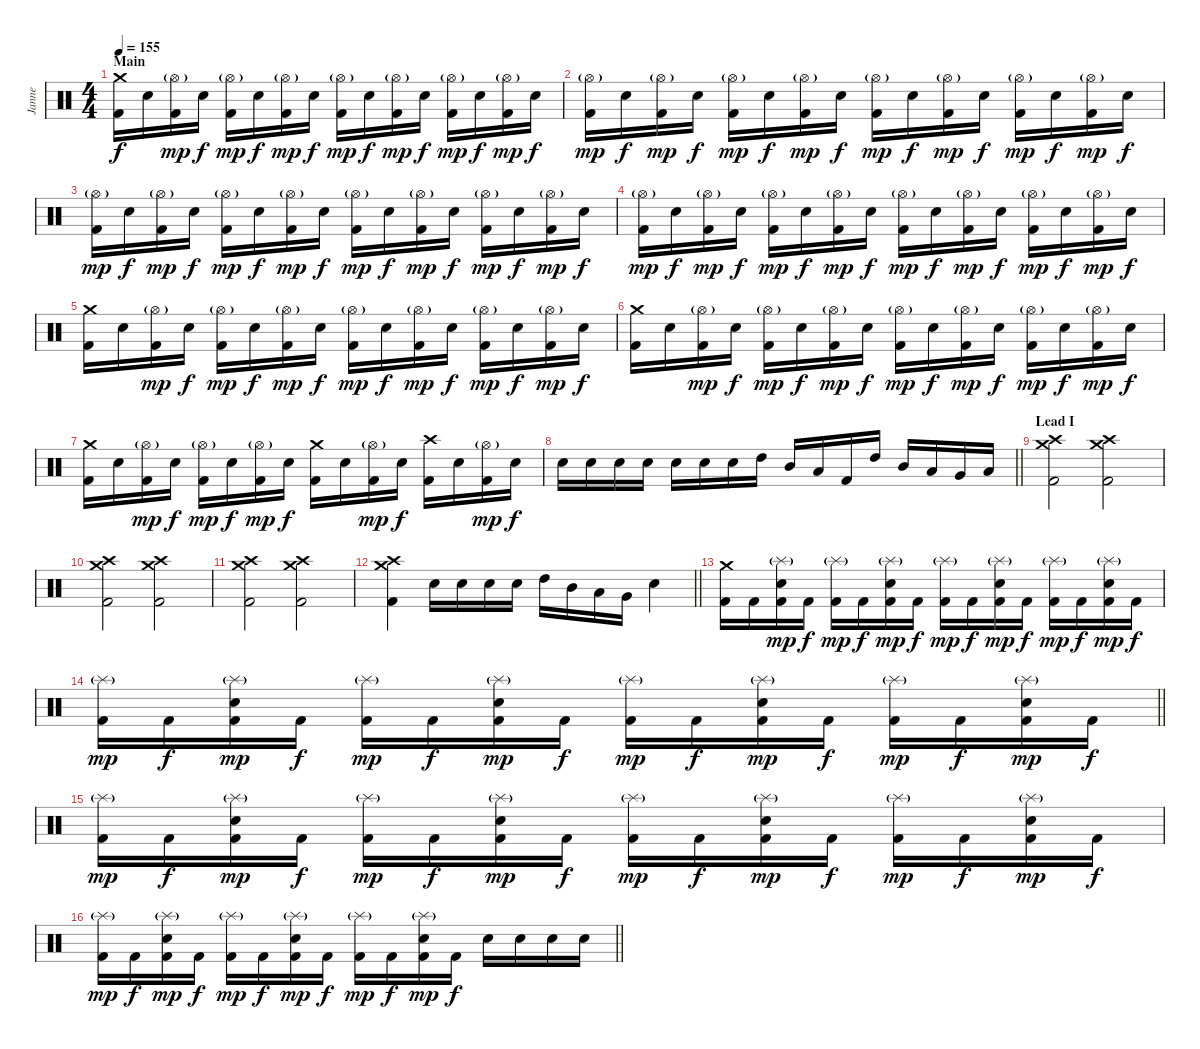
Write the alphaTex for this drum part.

\track ("Janne" "Janne") {instrument percussion}
\staff {score}
\articulation defaults
\ts (4 4)
\section ("" "Main")
\tempo 155
\clef neutral
\ks c
("Kick (hit) 2" "Crash medium (hit)").16{dy f} "Snare (hit) 2".16 ("Kick (hit) 2" "Hi-Hat (open)"{g}).16{dy mp} "Snare (hit) 2".16{dy f} ("Kick (hit) 2" "Hi-Hat (open)"{g}).16{dy mp} "Snare (hit) 2".16{dy f} ("Kick (hit) 2" "Hi-Hat (open)"{g}).16{dy mp} "Snare (hit) 2".16{dy f} ("Kick (hit) 2" "Hi-Hat (open)"{g}).16{dy mp} "Snare (hit) 2".16{dy f} ("Kick (hit) 2" "Hi-Hat (open)"{g}).16{dy mp} "Snare (hit) 2".16{dy f} ("Kick (hit) 2" "Hi-Hat (open)"{g}).16{dy mp} "Snare (hit) 2".16{dy f} ("Kick (hit) 2" "Hi-Hat (open)"{g}).16{dy mp} "Snare (hit) 2".16{dy f} |
("Kick (hit) 2" "Hi-Hat (open)"{g}).16{dy mp} "Snare (hit) 2".16{dy f} ("Kick (hit) 2" "Hi-Hat (open)"{g}).16{dy mp} "Snare (hit) 2".16{dy f} ("Kick (hit) 2" "Hi-Hat (open)"{g}).16{dy mp} "Snare (hit) 2".16{dy f} ("Kick (hit) 2" "Hi-Hat (open)"{g}).16{dy mp} "Snare (hit) 2".16{dy f} ("Kick (hit) 2" "Hi-Hat (open)"{g}).16{dy mp} "Snare (hit) 2".16{dy f} ("Kick (hit) 2" "Hi-Hat (open)"{g}).16{dy mp} "Snare (hit) 2".16{dy f} ("Kick (hit) 2" "Hi-Hat (open)"{g}).16{dy mp} "Snare (hit) 2".16{dy f} ("Kick (hit) 2" "Hi-Hat (open)"{g}).16{dy mp} "Snare (hit) 2".16{dy f} |
("Kick (hit) 2" "Hi-Hat (open)"{g}).16{dy mp} "Snare (hit) 2".16{dy f} ("Kick (hit) 2" "Hi-Hat (open)"{g}).16{dy mp} "Snare (hit) 2".16{dy f} ("Kick (hit) 2" "Hi-Hat (open)"{g}).16{dy mp} "Snare (hit) 2".16{dy f} ("Kick (hit) 2" "Hi-Hat (open)"{g}).16{dy mp} "Snare (hit) 2".16{dy f} ("Kick (hit) 2" "Hi-Hat (open)"{g}).16{dy mp} "Snare (hit) 2".16{dy f} ("Kick (hit) 2" "Hi-Hat (open)"{g}).16{dy mp} "Snare (hit) 2".16{dy f} ("Kick (hit) 2" "Hi-Hat (open)"{g}).16{dy mp} "Snare (hit) 2".16{dy f} ("Kick (hit) 2" "Hi-Hat (open)"{g}).16{dy mp} "Snare (hit) 2".16{dy f} |
("Kick (hit) 2" "Hi-Hat (open)"{g}).16{dy mp} "Snare (hit) 2".16{dy f} ("Kick (hit) 2" "Hi-Hat (open)"{g}).16{dy mp} "Snare (hit) 2".16{dy f} ("Kick (hit) 2" "Hi-Hat (open)"{g}).16{dy mp} "Snare (hit) 2".16{dy f} ("Kick (hit) 2" "Hi-Hat (open)"{g}).16{dy mp} "Snare (hit) 2".16{dy f} ("Kick (hit) 2" "Hi-Hat (open)"{g}).16{dy mp} "Snare (hit) 2".16{dy f} ("Kick (hit) 2" "Hi-Hat (open)"{g}).16{dy mp} "Snare (hit) 2".16{dy f} ("Kick (hit) 2" "Hi-Hat (open)"{g}).16{dy mp} "Snare (hit) 2".16{dy f} ("Kick (hit) 2" "Hi-Hat (open)"{g}).16{dy mp} "Snare (hit) 2".16{dy f} |
("Kick (hit) 2" "Crash medium (hit)").16 "Snare (hit) 2".16 ("Kick (hit) 2" "Hi-Hat (open)"{g}).16{dy mp} "Snare (hit) 2".16{dy f} ("Kick (hit) 2" "Hi-Hat (open)"{g}).16{dy mp} "Snare (hit) 2".16{dy f} ("Kick (hit) 2" "Hi-Hat (open)"{g}).16{dy mp} "Snare (hit) 2".16{dy f} ("Kick (hit) 2" "Hi-Hat (open)"{g}).16{dy mp} "Snare (hit) 2".16{dy f} ("Kick (hit) 2" "Hi-Hat (open)"{g}).16{dy mp} "Snare (hit) 2".16{dy f} ("Kick (hit) 2" "Hi-Hat (open)"{g}).16{dy mp} "Snare (hit) 2".16{dy f} ("Kick (hit) 2" "Hi-Hat (open)"{g}).16{dy mp} "Snare (hit) 2".16{dy f} |
("Kick (hit) 2" "Crash medium (hit)").16 "Snare (hit) 2".16 ("Kick (hit) 2" "Hi-Hat (open)"{g}).16{dy mp} "Snare (hit) 2".16{dy f} ("Kick (hit) 2" "Hi-Hat (open)"{g}).16{dy mp} "Snare (hit) 2".16{dy f} ("Kick (hit) 2" "Hi-Hat (open)"{g}).16{dy mp} "Snare (hit) 2".16{dy f} ("Kick (hit) 2" "Hi-Hat (open)"{g}).16{dy mp} "Snare (hit) 2".16{dy f} ("Kick (hit) 2" "Hi-Hat (open)"{g}).16{dy mp} "Snare (hit) 2".16{dy f} ("Kick (hit) 2" "Hi-Hat (open)"{g}).16{dy mp} "Snare (hit) 2".16{dy f} ("Kick (hit) 2" "Hi-Hat (open)"{g}).16{dy mp} "Snare (hit) 2".16{dy f} |
("Kick (hit) 2" "Crash medium (hit)").16 "Snare (hit) 2".16 ("Kick (hit) 2" "Hi-Hat (open)"{g}).16{dy mp} "Snare (hit) 2".16{dy f} ("Kick (hit) 2" "Hi-Hat (open)"{g}).16{dy mp} "Snare (hit) 2".16{dy f} ("Kick (hit) 2" "Hi-Hat (open)"{g}).16{dy mp} "Snare (hit) 2".16{dy f} ("Kick (hit) 2" "Crash medium (hit)").16 "Snare (hit) 2".16 ("Kick (hit) 2" "Hi-Hat (open)"{g}).16{dy mp} "Snare (hit) 2".16{dy f} ("Kick (hit) 2" "Crash high (hit)").16 "Snare (hit) 2".16 ("Kick (hit) 2" "Hi-Hat (open)"{g}).16{dy mp} "Snare (hit) 2".16{dy f} |
\barLineRight lightlight "Snare (hit) 2".16 "Snare (hit) 2".16 "Snare (hit) 2".16 "Snare (hit) 2".16 "Snare (hit) 2".16 "Snare (hit) 2".16 "Snare (hit) 2".16 "High Tom (hit)".16 "Mid Tom (hit)".16 "Low Tom (hit)".16 "Kick (hit) 2".16 "High Tom (hit)".16 "Mid Tom (hit)".16 "Low Tom (hit)".16 "Very Low Tom (hit)".16 "Low Floor Tom (hit)".16
|
\section ("" "Lead I")
("Kick (hit) 2" "Crash medium (hit)" "Crash high (hit)").2 ("Kick (hit) 2" "Crash high (hit)" "Crash medium (hit)").2 |
("Kick (hit) 2" "Crash medium (hit)" "Crash high (hit)").2 ("Kick (hit) 2" "Crash high (hit)" "Crash medium (hit)").2 |
("Kick (hit) 2" "Crash medium (hit)" "Crash high (hit)").2 ("Kick (hit) 2" "Crash high (hit)" "Crash medium (hit)").2 |
\barLineRight lightlight
("Kick (hit) 2" "Crash medium (hit)" "Crash high (hit)").4 "Snare (hit) 2".16 "Snare (hit) 2".16 "Snare (hit) 2".16 "Snare (hit) 2".16 "High Tom (hit)".16 "Mid Tom (hit)".16 "Low Tom (hit)".16 "Very Low Tom (hit)".16 "Snare (hit) 2".4 |
\section ("" "")
("Kick (hit) 2" "Crash medium (hit)").16 "Kick (hit) 2".16 ("Kick (hit) 2" "Snare (hit) 2" "Splash (hit)"{g}).16{dy mp} "Kick (hit) 2".16{dy f} ("Kick (hit) 2" "Splash (hit)"{g}).16{dy mp} "Kick (hit) 2".16{dy f} ("Kick (hit) 2" "Snare (hit) 2" "Splash (hit)"{g}).16{dy mp} "Kick (hit) 2".16{dy f} ("Kick (hit) 2" "Splash (hit)"{g}).16{dy mp} "Kick (hit) 2".16{dy f} ("Kick (hit) 2" "Snare (hit) 2" "Splash (hit)"{g}).16{dy mp} "Kick (hit) 2".16{dy f} ("Kick (hit) 2" "Splash (hit)"{g}).16{dy mp} "Kick (hit) 2".16{dy f} ("Kick (hit) 2" "Snare (hit) 2" "Splash (hit)"{g}).16{dy mp} "Kick (hit) 2".16{dy f} |
\barLineRight lightlight
("Kick (hit) 2" "Splash (hit)"{g}).16{dy mp} "Kick (hit) 2".16{dy f} ("Kick (hit) 2" "Snare (hit) 2" "Splash (hit)"{g}).16{dy mp} "Kick (hit) 2".16{dy f} ("Kick (hit) 2" "Splash (hit)"{g}).16{dy mp} "Kick (hit) 2".16{dy f} ("Kick (hit) 2" "Snare (hit) 2" "Splash (hit)"{g}).16{dy mp} "Kick (hit) 2".16{dy f} ("Kick (hit) 2" "Splash (hit)"{g}).16{dy mp} "Kick (hit) 2".16{dy f} ("Kick (hit) 2" "Snare (hit) 2" "Splash (hit)"{g}).16{dy mp} "Kick (hit) 2".16{dy f} ("Kick (hit) 2" "Splash (hit)"{g}).16{dy mp} "Kick (hit) 2".16{dy f} ("Kick (hit) 2" "Snare (hit) 2" "Splash (hit)"{g}).16{dy mp} "Kick (hit) 2".16{dy f} |
("Kick (hit) 2" "Splash (hit)"{g}).16{dy mp} "Kick (hit) 2".16{dy f} ("Kick (hit) 2" "Snare (hit) 2" "Splash (hit)"{g}).16{dy mp} "Kick (hit) 2".16{dy f} ("Kick (hit) 2" "Splash (hit)"{g}).16{dy mp} "Kick (hit) 2".16{dy f} ("Kick (hit) 2" "Snare (hit) 2" "Splash (hit)"{g}).16{dy mp} "Kick (hit) 2".16{dy f} ("Kick (hit) 2" "Splash (hit)"{g}).16{dy mp} "Kick (hit) 2".16{dy f} ("Kick (hit) 2" "Snare (hit) 2" "Splash (hit)"{g}).16{dy mp} "Kick (hit) 2".16{dy f} ("Kick (hit) 2" "Splash (hit)"{g}).16{dy mp} "Kick (hit) 2".16{dy f} ("Kick (hit) 2" "Snare (hit) 2" "Splash (hit)"{g}).16{dy mp} "Kick (hit) 2".16{dy f} |
\barLineRight lightlight
("Kick (hit) 2" "Splash (hit)"{g}).16{dy mp} "Kick (hit) 2".16{dy f} ("Kick (hit) 2" "Snare (hit) 2" "Splash (hit)"{g}).16{dy mp} "Kick (hit) 2".16{dy f} ("Kick (hit) 2" "Splash (hit)"{g}).16{dy mp} "Kick (hit) 2".16{dy f} ("Kick (hit) 2" "Snare (hit) 2" "Splash (hit)"{g}).16{dy mp} "Kick (hit) 2".16{dy f} ("Kick (hit) 2" "Splash (hit)"{g}).16{dy mp} "Kick (hit) 2".16{dy f} ("Kick (hit) 2" "Snare (hit) 2" "Splash (hit)"{g}).16{dy mp} "Kick (hit) 2".16{dy f} "Snare (hit) 2".16 "Snare (hit) 2".16 "Snare (hit) 2".16 "Snare (hit) 2".16
